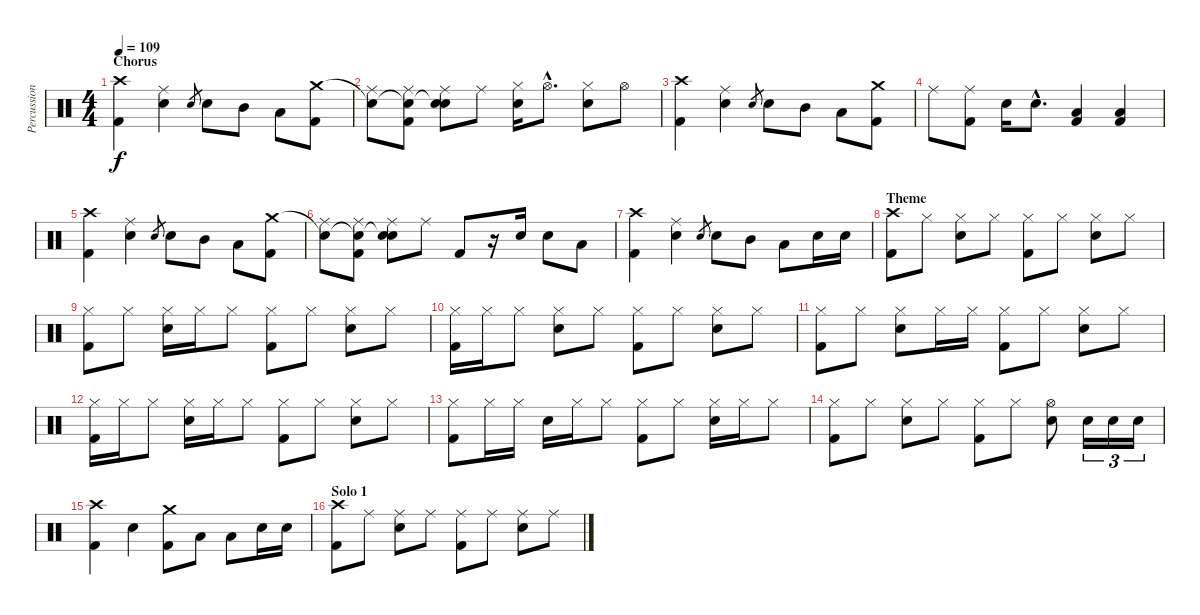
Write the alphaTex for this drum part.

\track ("Percussion" "Percussion") {instrument percussion}
\staff {score}
\articulation defaults
\ts (4 4)
\section ("" "Chorus")
\tempo 109
\clef neutral
\ks c
("Crash high (hit)" "Kick (hit) 2").4{dy f} ("Ride (middle)" "Electric Snare (hit)").4 "Electric Snare (hit)".8{gr} "Electric Snare (hit)".8 "Mid Tom (hit)".8 "Low Tom (hit)".8 ("Crash medium (hit)" "Kick (hit) 2").8 |
("Snare (hit)"{t} "Ride (middle)").8 ("Snare (hit)"{t} "Ride (middle)" "Kick (hit) 2").8 ("Snare (hit)"{t} "Ride (middle)" "Electric Snare (hit)").8 "Ride (middle)".8 ("Hi-Hat (closed)" "Electric Snare (hit)").16 "Hi-Hat (open)"{hac}.8{d} ("Hi-Hat (closed)" "Electric Snare (hit)").8 "Hi-Hat (open)".8 |
("Crash high (hit)" "Kick (hit) 2").4 ("Ride (middle)" "Electric Snare (hit)").4 "Electric Snare (hit)".8{gr} "Electric Snare (hit)".8 "Mid Tom (hit)".8 "Low Tom (hit)".8 ("Crash medium (hit)" "Kick (hit) 2").8 |
"Ride (middle)".8 ("Ride (middle)" "Kick (hit) 2").8 "Electric Snare (hit)".16 "Electric Snare (hit)"{hac}.8{d} ("Low Tom (hit)" "Kick (hit) 2").4 ("Low Tom (hit)" "Kick (hit) 2").4 |
("Crash high (hit)" "Kick (hit) 2").4 ("Ride (middle)" "Electric Snare (hit)").4 "Electric Snare (hit)".8{gr} "Electric Snare (hit)".8 "Mid Tom (hit)".8 "Low Tom (hit)".8 ("Crash medium (hit)" "Kick (hit) 2").8 |
("Snare (hit)"{t} "Ride (middle)").8 ("Snare (hit)"{t} "Ride (middle)" "Kick (hit) 2").8 ("Snare (hit)"{t} "Ride (middle)" "Electric Snare (hit)").8 "Ride (middle)".8 "Kick (hit) 2".8 r.16 "Electric Snare (hit)".16 "Electric Snare (hit)".8 "Low Tom (hit)".8 |
("Crash high (hit)" "Kick (hit) 2").4 ("Ride (middle)" "Electric Snare (hit)").4 "Electric Snare (hit)".8{gr} "Electric Snare (hit)".8 "Mid Tom (hit)".8 "Low Tom (hit)".8 "Electric Snare (hit)".16 "Electric Snare (hit)".16 |
\section ("" "Theme")
("Crash high (hit)" "Kick (hit) 2").8 "Hi-Hat (closed)".8 ("Hi-Hat (closed)" "Electric Snare (hit)").8 "Hi-Hat (closed)".8 ("Hi-Hat (closed)" "Kick (hit) 2").8 "Hi-Hat (closed)".8 ("Hi-Hat (closed)" "Electric Snare (hit)").8 "Hi-Hat (closed)".8 |
("Hi-Hat (closed)" "Kick (hit) 2").8 "Hi-Hat (closed)".8 ("Hi-Hat (closed)" "Electric Snare (hit)").16 "Hi-Hat (closed)".16 "Hi-Hat (closed)".8 ("Hi-Hat (closed)" "Kick (hit) 2").8 "Hi-Hat (closed)".8 ("Hi-Hat (closed)" "Electric Snare (hit)").8 "Hi-Hat (closed)".8 |
("Hi-Hat (closed)" "Kick (hit) 2").16 "Hi-Hat (closed)".16 "Hi-Hat (closed)".8 ("Hi-Hat (closed)" "Electric Snare (hit)").8 "Hi-Hat (closed)".8 ("Hi-Hat (closed)" "Kick (hit) 2").8 "Hi-Hat (closed)".8 ("Hi-Hat (closed)" "Electric Snare (hit)").8 "Hi-Hat (closed)".8 |
("Hi-Hat (closed)" "Kick (hit) 2").8 "Hi-Hat (closed)".8 ("Hi-Hat (closed)" "Electric Snare (hit)").8 "Hi-Hat (closed)".16 "Hi-Hat (closed)".16 ("Hi-Hat (closed)" "Kick (hit) 2").8 "Hi-Hat (closed)".8 ("Hi-Hat (closed)" "Electric Snare (hit)").8 "Hi-Hat (closed)".8 |
("Hi-Hat (closed)" "Kick (hit) 2").16 "Hi-Hat (closed)".16 "Hi-Hat (closed)".8 ("Hi-Hat (closed)" "Electric Snare (hit)").16 "Hi-Hat (closed)".16 "Hi-Hat (closed)".8 ("Hi-Hat (closed)" "Kick (hit) 2").8 "Hi-Hat (closed)".8 ("Hi-Hat (closed)" "Electric Snare (hit)").8 "Hi-Hat (closed)".8 |
("Hi-Hat (closed)" "Kick (hit) 2").8 "Hi-Hat (closed)".16 "Hi-Hat (closed)".16 "Electric Snare (hit)".16 "Hi-Hat (closed)".16 "Hi-Hat (closed)".8 ("Hi-Hat (closed)" "Kick (hit) 2").8 "Hi-Hat (closed)".8 ("Hi-Hat (closed)" "Electric Snare (hit)").16 "Hi-Hat (closed)".16 "Hi-Hat (closed)".8 |
("Hi-Hat (closed)" "Kick (hit) 2").8 "Hi-Hat (closed)".8 ("Hi-Hat (closed)" "Electric Snare (hit)").8 "Hi-Hat (closed)".8 ("Hi-Hat (closed)" "Kick (hit) 2").8 "Hi-Hat (closed)".8 ("Hi-Hat (open)" "Electric Snare (hit)").8 "Electric Snare (hit)".16{tu (3 2)} "Electric Snare (hit)".16{tu (3 2)} "Electric Snare (hit)".16{tu (3 2)} |
("Crash high (hit)" "Kick (hit) 2").4 "Electric Snare (hit)".4 ("Crash medium (hit)" "Kick (hit) 2").8 "Low Tom (hit)".8 "Low Tom (hit)".8 "Electric Snare (hit)".16 "Electric Snare (hit)".16 |
\section ("" "Solo 1")
("Crash high (hit)" "Kick (hit) 2").8 "Ride (middle)".8 ("Ride (middle)" "Electric Snare (hit)").8 "Ride (middle)".8 ("Ride (middle)" "Kick (hit) 2").8 "Ride (middle)".8 ("Ride (middle)" "Electric Snare (hit)").8 "Ride (middle)".8
